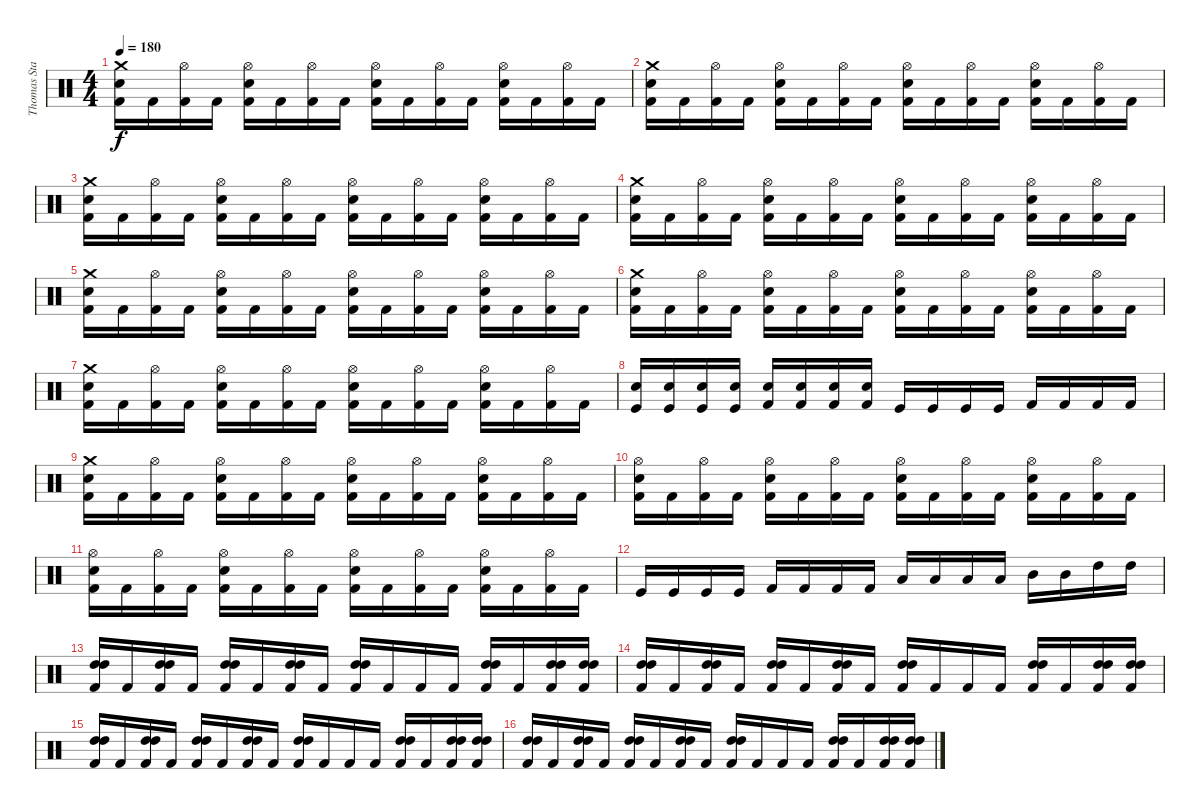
\track ("Thomas Stauch" "Thomas Sta") {instrument percussion}
\staff {score}
\articulation defaults
\ts (4 4)
\tempo 180
\clef neutral
\ks c
("Kick (hit) 2" "Snare (hit) 2" "Crash medium (hit)").16{dy f} "Kick (hit) 2".16 ("Kick (hit) 2" "Hi-Hat (open)").16 "Kick (hit) 2".16 ("Kick (hit) 2" "Snare (hit) 2" "Hi-Hat (open)").16 "Kick (hit) 2".16 ("Kick (hit) 2" "Hi-Hat (open)").16 "Kick (hit) 2".16 ("Kick (hit) 2" "Snare (hit) 2" "Hi-Hat (open)").16 "Kick (hit) 2".16 ("Kick (hit) 2" "Hi-Hat (open)").16 "Kick (hit) 2".16 ("Kick (hit) 2" "Snare (hit) 2" "Hi-Hat (open)").16 "Kick (hit) 2".16 ("Kick (hit) 2" "Hi-Hat (open)").16 "Kick (hit) 2".16 |
("Kick (hit) 2" "Snare (hit) 2" "Crash medium (hit)").16 "Kick (hit) 2".16 ("Kick (hit) 2" "Hi-Hat (open)").16 "Kick (hit) 2".16 ("Kick (hit) 2" "Snare (hit) 2" "Hi-Hat (open)").16 "Kick (hit) 2".16 ("Kick (hit) 2" "Hi-Hat (open)").16 "Kick (hit) 2".16 ("Kick (hit) 2" "Snare (hit) 2" "Hi-Hat (open)").16 "Kick (hit) 2".16 ("Kick (hit) 2" "Hi-Hat (open)").16 "Kick (hit) 2".16 ("Kick (hit) 2" "Snare (hit) 2" "Hi-Hat (open)").16 "Kick (hit) 2".16 ("Kick (hit) 2" "Hi-Hat (open)").16 "Kick (hit) 2".16 |
("Kick (hit) 2" "Snare (hit) 2" "Crash medium (hit)").16 "Kick (hit) 2".16 ("Kick (hit) 2" "Hi-Hat (open)").16 "Kick (hit) 2".16 ("Kick (hit) 2" "Snare (hit) 2" "Hi-Hat (open)").16 "Kick (hit) 2".16 ("Kick (hit) 2" "Hi-Hat (open)").16 "Kick (hit) 2".16 ("Kick (hit) 2" "Snare (hit) 2" "Hi-Hat (open)").16 "Kick (hit) 2".16 ("Kick (hit) 2" "Hi-Hat (open)").16 "Kick (hit) 2".16 ("Kick (hit) 2" "Snare (hit) 2" "Hi-Hat (open)").16 "Kick (hit) 2".16 ("Kick (hit) 2" "Hi-Hat (open)").16 "Kick (hit) 2".16 |
("Kick (hit) 2" "Snare (hit) 2" "Crash medium (hit)").16 "Kick (hit) 2".16 ("Kick (hit) 2" "Hi-Hat (open)").16 "Kick (hit) 2".16 ("Kick (hit) 2" "Snare (hit) 2" "Hi-Hat (open)").16 "Kick (hit) 2".16 ("Kick (hit) 2" "Hi-Hat (open)").16 "Kick (hit) 2".16 ("Kick (hit) 2" "Snare (hit) 2" "Hi-Hat (open)").16 "Kick (hit) 2".16 ("Kick (hit) 2" "Hi-Hat (open)").16 "Kick (hit) 2".16 ("Kick (hit) 2" "Snare (hit) 2" "Hi-Hat (open)").16 "Kick (hit) 2".16 ("Kick (hit) 2" "Hi-Hat (open)").16 "Kick (hit) 2".16 |
("Kick (hit) 2" "Snare (hit) 2" "Crash medium (hit)").16 "Kick (hit) 2".16 ("Kick (hit) 2" "Hi-Hat (open)").16 "Kick (hit) 2".16 ("Kick (hit) 2" "Snare (hit) 2" "Hi-Hat (open)").16 "Kick (hit) 2".16 ("Kick (hit) 2" "Hi-Hat (open)").16 "Kick (hit) 2".16 ("Kick (hit) 2" "Snare (hit) 2" "Hi-Hat (open)").16 "Kick (hit) 2".16 ("Kick (hit) 2" "Hi-Hat (open)").16 "Kick (hit) 2".16 ("Kick (hit) 2" "Snare (hit) 2" "Hi-Hat (open)").16 "Kick (hit) 2".16 ("Kick (hit) 2" "Hi-Hat (open)").16 "Kick (hit) 2".16 |
("Kick (hit) 2" "Snare (hit) 2" "Crash medium (hit)").16 "Kick (hit) 2".16 ("Kick (hit) 2" "Hi-Hat (open)").16 "Kick (hit) 2".16 ("Kick (hit) 2" "Snare (hit) 2" "Hi-Hat (open)").16 "Kick (hit) 2".16 ("Kick (hit) 2" "Hi-Hat (open)").16 "Kick (hit) 2".16 ("Kick (hit) 2" "Snare (hit) 2" "Hi-Hat (open)").16 "Kick (hit) 2".16 ("Kick (hit) 2" "Hi-Hat (open)").16 "Kick (hit) 2".16 ("Kick (hit) 2" "Snare (hit) 2" "Hi-Hat (open)").16 "Kick (hit) 2".16 ("Kick (hit) 2" "Hi-Hat (open)").16 "Kick (hit) 2".16 |
("Kick (hit) 2" "Snare (hit) 2" "Crash medium (hit)").16 "Kick (hit) 2".16 ("Kick (hit) 2" "Hi-Hat (open)").16 "Kick (hit) 2".16 ("Kick (hit) 2" "Snare (hit) 2" "Hi-Hat (open)").16 "Kick (hit) 2".16 ("Kick (hit) 2" "Hi-Hat (open)").16 "Kick (hit) 2".16 ("Kick (hit) 2" "Snare (hit) 2" "Hi-Hat (open)").16 "Kick (hit) 2".16 ("Kick (hit) 2" "Hi-Hat (open)").16 "Kick (hit) 2".16 ("Kick (hit) 2" "Snare (hit) 2" "Hi-Hat (open)").16 "Kick (hit) 2".16 ("Kick (hit) 2" "Hi-Hat (open)").16 "Kick (hit) 2".16 |
("Kick (hit)" "Snare (hit) 2").16 ("Kick (hit)" "Snare (hit) 2").16 ("Kick (hit)" "Snare (hit) 2").16 ("Kick (hit)" "Snare (hit) 2").16 ("Kick (hit) 2" "Snare (hit) 2").16 ("Kick (hit) 2" "Snare (hit) 2").16 ("Kick (hit) 2" "Snare (hit) 2").16 ("Kick (hit) 2" "Snare (hit) 2").16 "Kick (hit)".16 "Kick (hit)".16 "Kick (hit)".16 "Kick (hit)".16 "Kick (hit) 2".16 "Kick (hit) 2".16 "Kick (hit) 2".16 "Kick (hit) 2".16 |
("Kick (hit) 2" "Snare (hit) 2" "Crash medium (hit)").16 "Kick (hit) 2".16 ("Kick (hit) 2" "Hi-Hat (open)").16 "Kick (hit) 2".16 ("Kick (hit) 2" "Snare (hit) 2" "Hi-Hat (open)").16 "Kick (hit) 2".16 ("Kick (hit) 2" "Hi-Hat (open)").16 "Kick (hit) 2".16 ("Kick (hit) 2" "Snare (hit) 2" "Hi-Hat (open)").16 "Kick (hit) 2".16 ("Kick (hit) 2" "Hi-Hat (open)").16 "Kick (hit) 2".16 ("Kick (hit) 2" "Snare (hit) 2" "Hi-Hat (open)").16 "Kick (hit) 2".16 ("Kick (hit) 2" "Hi-Hat (open)").16 "Kick (hit) 2".16 |
("Kick (hit) 2" "Snare (hit) 2" "Hi-Hat (open)").16 "Kick (hit) 2".16 ("Kick (hit) 2" "Hi-Hat (open)").16 "Kick (hit) 2".16 ("Kick (hit) 2" "Snare (hit) 2" "Hi-Hat (open)").16 "Kick (hit) 2".16 ("Kick (hit) 2" "Hi-Hat (open)").16 "Kick (hit) 2".16 ("Kick (hit) 2" "Snare (hit) 2" "Hi-Hat (open)").16 "Kick (hit) 2".16 ("Kick (hit) 2" "Hi-Hat (open)").16 "Kick (hit) 2".16 ("Kick (hit) 2" "Snare (hit) 2" "Hi-Hat (open)").16 "Kick (hit) 2".16 ("Kick (hit) 2" "Hi-Hat (open)").16 "Kick (hit) 2".16 |
("Kick (hit) 2" "Snare (hit) 2" "Hi-Hat (open)").16 "Kick (hit) 2".16 ("Kick (hit) 2" "Hi-Hat (open)").16 "Kick (hit) 2".16 ("Kick (hit) 2" "Snare (hit) 2" "Hi-Hat (open)").16 "Kick (hit) 2".16 ("Kick (hit) 2" "Hi-Hat (open)").16 "Kick (hit) 2".16 ("Kick (hit) 2" "Snare (hit) 2" "Hi-Hat (open)").16 "Kick (hit) 2".16 ("Kick (hit) 2" "Hi-Hat (open)").16 "Kick (hit) 2".16 ("Kick (hit) 2" "Snare (hit) 2" "Hi-Hat (open)").16 "Kick (hit) 2".16 ("Kick (hit) 2" "Hi-Hat (open)").16 "Kick (hit) 2".16 |
"Kick (hit)".16 "Kick (hit)".16 "Kick (hit)".16 "Kick (hit)".16 "Kick (hit) 2".16 "Kick (hit) 2".16 "Kick (hit) 2".16 "Kick (hit) 2".16 "Low Tom (hit)".16 "Low Tom (hit)".16 "Low Tom (hit)".16 "Low Tom (hit)".16 "Mid Tom (hit)".16 "Mid Tom (hit)".16 "High Tom (hit)".16 "High Tom (hit)".16 |
("Kick (hit) 2" "High Tom (hit)" "High Tom (hit)").16 "Kick (hit) 2".16 ("Kick (hit) 2" "High Tom (hit)" "High Tom (hit)").16 "Kick (hit) 2".16 ("Kick (hit) 2" "High Tom (hit)" "High Tom (hit)").16 "Kick (hit) 2".16 ("Kick (hit) 2" "High Tom (hit)" "High Tom (hit)").16 "Kick (hit) 2".16 ("Kick (hit) 2" "High Tom (hit)" "High Tom (hit)").16 "Kick (hit) 2".16 "Kick (hit) 2".16 "Kick (hit) 2".16 ("Kick (hit) 2" "High Tom (hit)" "High Tom (hit)").16 "Kick (hit) 2".16 ("Kick (hit) 2" "High Tom (hit)" "High Tom (hit)").16 ("Kick (hit) 2" "High Tom (hit)" "High Tom (hit)").16 |
("Kick (hit) 2" "High Tom (hit)" "High Tom (hit)").16 "Kick (hit) 2".16 ("Kick (hit) 2" "High Tom (hit)" "High Tom (hit)").16 "Kick (hit) 2".16 ("Kick (hit) 2" "High Tom (hit)" "High Tom (hit)").16 "Kick (hit) 2".16 ("Kick (hit) 2" "High Tom (hit)" "High Tom (hit)").16 "Kick (hit) 2".16 ("Kick (hit) 2" "High Tom (hit)" "High Tom (hit)").16 "Kick (hit) 2".16 "Kick (hit) 2".16 "Kick (hit) 2".16 ("Kick (hit) 2" "High Tom (hit)" "High Tom (hit)").16 "Kick (hit) 2".16 ("Kick (hit) 2" "High Tom (hit)" "High Tom (hit)").16 ("Kick (hit) 2" "High Tom (hit)" "High Tom (hit)").16 |
("Kick (hit) 2" "High Tom (hit)" "High Tom (hit)").16 "Kick (hit) 2".16 ("Kick (hit) 2" "High Tom (hit)" "High Tom (hit)").16 "Kick (hit) 2".16 ("Kick (hit) 2" "High Tom (hit)" "High Tom (hit)").16 "Kick (hit) 2".16 ("Kick (hit) 2" "High Tom (hit)" "High Tom (hit)").16 "Kick (hit) 2".16 ("Kick (hit) 2" "High Tom (hit)" "High Tom (hit)").16 "Kick (hit) 2".16 "Kick (hit) 2".16 "Kick (hit) 2".16 ("Kick (hit) 2" "High Tom (hit)" "High Tom (hit)").16 "Kick (hit) 2".16 ("Kick (hit) 2" "High Tom (hit)" "High Tom (hit)").16 ("Kick (hit) 2" "High Tom (hit)" "High Tom (hit)").16 |
("Kick (hit) 2" "High Tom (hit)" "High Tom (hit)").16 "Kick (hit) 2".16 ("Kick (hit) 2" "High Tom (hit)" "High Tom (hit)").16 "Kick (hit) 2".16 ("Kick (hit) 2" "High Tom (hit)" "High Tom (hit)").16 "Kick (hit) 2".16 ("Kick (hit) 2" "High Tom (hit)" "High Tom (hit)").16 "Kick (hit) 2".16 ("Kick (hit) 2" "High Tom (hit)" "High Tom (hit)").16 "Kick (hit) 2".16 "Kick (hit) 2".16 "Kick (hit) 2".16 ("Kick (hit) 2" "High Tom (hit)" "High Tom (hit)").16 "Kick (hit) 2".16 ("Kick (hit) 2" "High Tom (hit)" "High Tom (hit)").16 ("Kick (hit) 2" "High Tom (hit)" "High Tom (hit)").16
